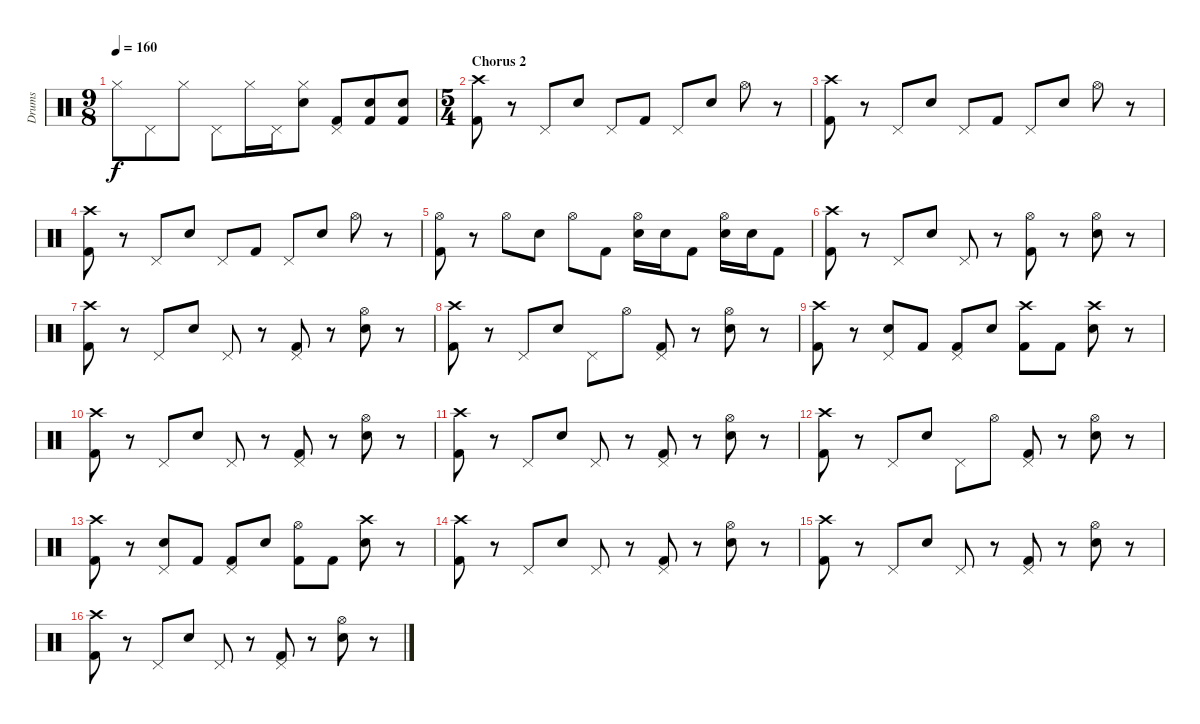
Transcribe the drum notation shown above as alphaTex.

\track ("Drums" "Drums") {instrument percussion}
\staff {score}
\articulation defaults
\ts (9 8)
\tempo 160
\clef neutral
\ks c "Hi-Hat (closed)".8{dy f} "Pedal Hi-Hat (hit)".8 "Hi-Hat (closed)".8 "Pedal Hi-Hat (hit)".8 "Hi-Hat (closed)".16 "Pedal Hi-Hat (hit)".16
("Hi-Hat (closed)" "Electric Snare (hit)").8 ("Pedal Hi-Hat (hit)" "Kick (hit) 2").8 ("Kick (hit) 2" "Electric Snare (hit)").8 ("Kick (hit) 2" "Electric Snare (hit)").8 |
\ts (5 4)
\section ("" "Chorus 2")
("Crash high (hit)" "Kick (hit) 2").8 r.8 "Pedal Hi-Hat (hit)".8 "Electric Snare (hit)".8 "Pedal Hi-Hat (hit)".8 "Kick (hit) 2".8 "Pedal Hi-Hat (hit)".8 "Electric Snare (hit)".8 "Hi-Hat (open)".8 r.8 |
("Crash high (hit)" "Kick (hit) 2").8 r.8 "Pedal Hi-Hat (hit)".8 "Electric Snare (hit)".8 "Pedal Hi-Hat (hit)".8 "Kick (hit) 2".8 "Pedal Hi-Hat (hit)".8 "Electric Snare (hit)".8 "Hi-Hat (open)".8 r.8 |
("Crash high (hit)" "Kick (hit) 2").8 r.8 "Pedal Hi-Hat (hit)".8 "Electric Snare (hit)".8 "Pedal Hi-Hat (hit)".8 "Kick (hit) 2".8 "Pedal Hi-Hat (hit)".8 "Electric Snare (hit)".8 "Hi-Hat (open)".8 r.8 |
("Hi-Hat (open)" "Kick (hit) 2").8 r.8 "Hi-Hat (open)".8 "Electric Snare (hit)".8 "Hi-Hat (open)".8 "Kick (hit) 2".8 ("Hi-Hat (open)" "Electric Snare (hit)").16 "Electric Snare (hit)".16 "Kick (hit) 2".8 ("Hi-Hat (open)" "Electric Snare (hit)").16 "Electric Snare (hit)".16 "Kick (hit) 2".8 |
("Crash high (hit)" "Kick (hit) 2").8 r.8 "Pedal Hi-Hat (hit)".8 "Electric Snare (hit)".8 "Pedal Hi-Hat (hit)".8 r.8 ("Hi-Hat (open)" "Kick (hit) 2").8 r.8 ("Hi-Hat (open)" "Electric Snare (hit)").8 r.8 |
("Crash high (hit)" "Kick (hit) 2").8 r.8 "Pedal Hi-Hat (hit)".8 "Electric Snare (hit)".8 "Pedal Hi-Hat (hit)".8 r.8 ("Pedal Hi-Hat (hit)" "Kick (hit) 2").8 r.8 ("Hi-Hat (open)" "Electric Snare (hit)").8 r.8 |
("Crash high (hit)" "Kick (hit) 2").8 r.8 "Pedal Hi-Hat (hit)".8 "Electric Snare (hit)".8 "Pedal Hi-Hat (hit)".8 "Hi-Hat (open)".8 ("Pedal Hi-Hat (hit)" "Kick (hit) 2").8 r.8 ("Hi-Hat (open)" "Electric Snare (hit)").8 r.8 |
("Crash high (hit)" "Kick (hit) 2").8 r.8 ("Pedal Hi-Hat (hit)" "Electric Snare (hit)").8 "Kick (hit) 2".8 ("Pedal Hi-Hat (hit)" "Kick (hit) 2").8 "Electric Snare (hit)".8 ("Crash high (hit)" "Kick (hit) 2").8 "Kick (hit) 2".8 ("Crash high (hit)" "Electric Snare (hit)").8 r.8 |
("Crash high (hit)" "Kick (hit) 2").8 r.8 "Pedal Hi-Hat (hit)".8 "Electric Snare (hit)".8 "Pedal Hi-Hat (hit)".8 r.8 ("Pedal Hi-Hat (hit)" "Kick (hit) 2").8 r.8 ("Hi-Hat (open)" "Electric Snare (hit)").8 r.8 |
("Crash high (hit)" "Kick (hit) 2").8 r.8 "Pedal Hi-Hat (hit)".8 "Electric Snare (hit)".8 "Pedal Hi-Hat (hit)".8 r.8 ("Pedal Hi-Hat (hit)" "Kick (hit) 2").8 r.8 ("Hi-Hat (open)" "Electric Snare (hit)").8 r.8 |
("Crash high (hit)" "Kick (hit) 2").8 r.8 "Pedal Hi-Hat (hit)".8 "Electric Snare (hit)".8 "Pedal Hi-Hat (hit)".8 "Hi-Hat (open)".8 ("Pedal Hi-Hat (hit)" "Kick (hit) 2").8 r.8 ("Hi-Hat (open)" "Electric Snare (hit)").8 r.8 |
("Crash high (hit)" "Kick (hit) 2").8 r.8 ("Pedal Hi-Hat (hit)" "Electric Snare (hit)").8 "Kick (hit) 2".8 ("Pedal Hi-Hat (hit)" "Kick (hit) 2").8 "Electric Snare (hit)".8 ("Hi-Hat (open)" "Kick (hit) 2").8 "Kick (hit) 2".8 ("Crash high (hit)" "Electric Snare (hit)").8 r.8 |
("Crash high (hit)" "Kick (hit) 2").8 r.8 "Pedal Hi-Hat (hit)".8 "Electric Snare (hit)".8 "Pedal Hi-Hat (hit)".8 r.8 ("Pedal Hi-Hat (hit)" "Kick (hit) 2").8 r.8 ("Hi-Hat (open)" "Electric Snare (hit)").8 r.8 |
("Crash high (hit)" "Kick (hit) 2").8 r.8 "Pedal Hi-Hat (hit)".8 "Electric Snare (hit)".8 "Pedal Hi-Hat (hit)".8 r.8 ("Pedal Hi-Hat (hit)" "Kick (hit) 2").8 r.8 ("Hi-Hat (open)" "Electric Snare (hit)").8 r.8 |
("Crash high (hit)" "Kick (hit) 2").8 r.8 "Pedal Hi-Hat (hit)".8 "Electric Snare (hit)".8 "Pedal Hi-Hat (hit)".8 r.8 ("Pedal Hi-Hat (hit)" "Kick (hit) 2").8 r.8 ("Hi-Hat (open)" "Electric Snare (hit)").8 r.8
